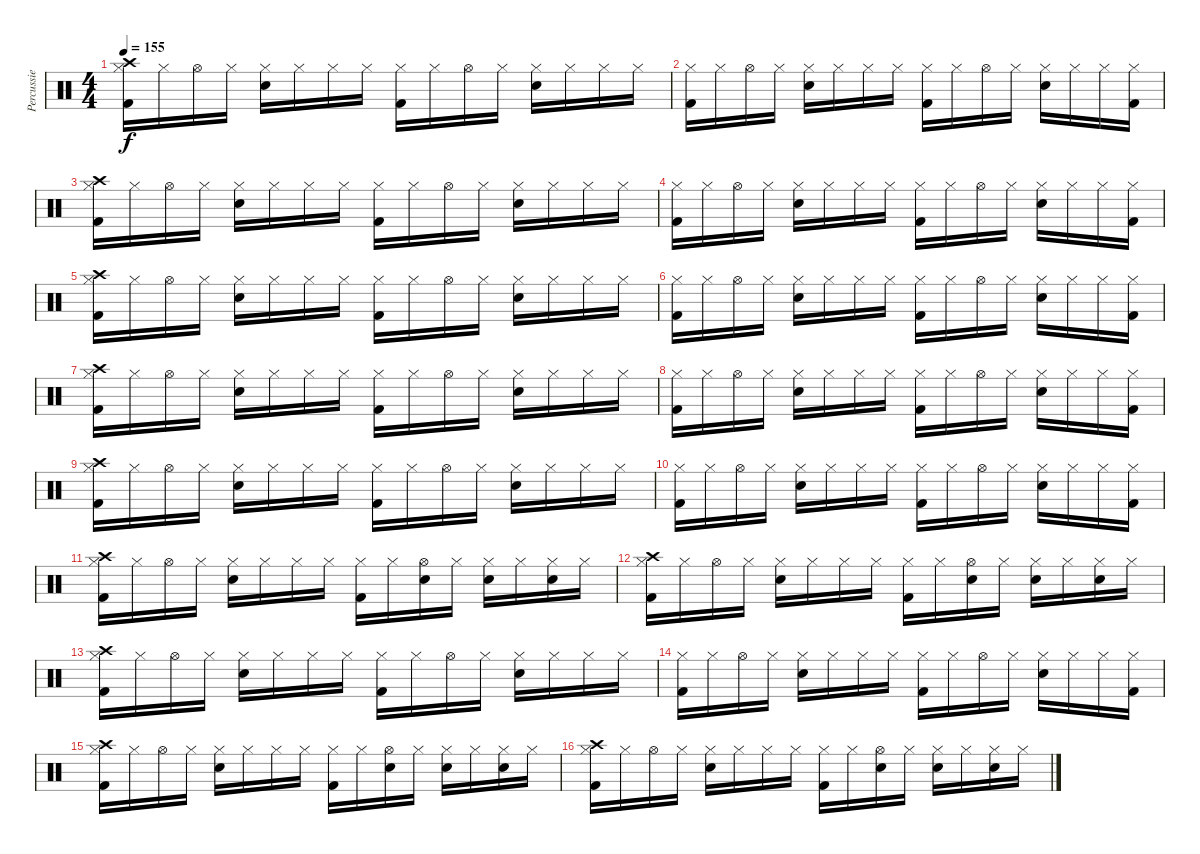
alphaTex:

\track ("Percussie" "Percussie") {instrument percussion}
\staff {score}
\articulation defaults
\ts (4 4)
\tempo 155
\clef neutral
\ks c
("Kick (hit) 2" "Hi-Hat (closed)" "Crash high (hit)").16{dy f} "Hi-Hat (closed)".16 "Hi-Hat (open)".16 "Hi-Hat (closed)".16 ("Electric Snare (hit)" "Hi-Hat (closed)").16 "Hi-Hat (closed)".16 "Hi-Hat (closed)".16 "Hi-Hat (closed)".16 ("Kick (hit) 2" "Hi-Hat (closed)").16 "Hi-Hat (closed)".16 "Hi-Hat (open)".16 "Hi-Hat (closed)".16 ("Electric Snare (hit)" "Hi-Hat (closed)").16 "Hi-Hat (closed)".16 "Hi-Hat (closed)".16 "Hi-Hat (closed)".16 |
("Kick (hit) 2" "Hi-Hat (closed)").16 "Hi-Hat (closed)".16 "Hi-Hat (open)".16 "Hi-Hat (closed)".16 ("Electric Snare (hit)" "Hi-Hat (closed)").16 "Hi-Hat (closed)".16 "Hi-Hat (closed)".16 "Hi-Hat (closed)".16 ("Kick (hit) 2" "Hi-Hat (closed)").16 "Hi-Hat (closed)".16 "Hi-Hat (open)".16 "Hi-Hat (closed)".16 ("Electric Snare (hit)" "Hi-Hat (closed)").16 "Hi-Hat (closed)".16 "Hi-Hat (closed)".16 ("Kick (hit) 2" "Hi-Hat (closed)").16 |
("Kick (hit) 2" "Hi-Hat (closed)" "Crash high (hit)").16 "Hi-Hat (closed)".16 "Hi-Hat (open)".16 "Hi-Hat (closed)".16 ("Electric Snare (hit)" "Hi-Hat (closed)").16 "Hi-Hat (closed)".16 "Hi-Hat (closed)".16 "Hi-Hat (closed)".16 ("Kick (hit) 2" "Hi-Hat (closed)").16 "Hi-Hat (closed)".16 "Hi-Hat (open)".16 "Hi-Hat (closed)".16 ("Electric Snare (hit)" "Hi-Hat (closed)").16 "Hi-Hat (closed)".16 "Hi-Hat (closed)".16 "Hi-Hat (closed)".16 |
("Kick (hit) 2" "Hi-Hat (closed)").16 "Hi-Hat (closed)".16 "Hi-Hat (open)".16 "Hi-Hat (closed)".16 ("Electric Snare (hit)" "Hi-Hat (closed)").16 "Hi-Hat (closed)".16 "Hi-Hat (closed)".16 "Hi-Hat (closed)".16 ("Kick (hit) 2" "Hi-Hat (closed)").16 "Hi-Hat (closed)".16 "Hi-Hat (open)".16 "Hi-Hat (closed)".16 ("Electric Snare (hit)" "Hi-Hat (closed)").16 "Hi-Hat (closed)".16 "Hi-Hat (closed)".16 ("Kick (hit) 2" "Hi-Hat (closed)").16 |
("Kick (hit) 2" "Hi-Hat (closed)" "Crash high (hit)").16 "Hi-Hat (closed)".16 "Hi-Hat (open)".16 "Hi-Hat (closed)".16 ("Electric Snare (hit)" "Hi-Hat (closed)").16 "Hi-Hat (closed)".16 "Hi-Hat (closed)".16 "Hi-Hat (closed)".16 ("Kick (hit) 2" "Hi-Hat (closed)").16 "Hi-Hat (closed)".16 "Hi-Hat (open)".16 "Hi-Hat (closed)".16 ("Electric Snare (hit)" "Hi-Hat (closed)").16 "Hi-Hat (closed)".16 "Hi-Hat (closed)".16 "Hi-Hat (closed)".16 |
("Kick (hit) 2" "Hi-Hat (closed)").16 "Hi-Hat (closed)".16 "Hi-Hat (open)".16 "Hi-Hat (closed)".16 ("Electric Snare (hit)" "Hi-Hat (closed)").16 "Hi-Hat (closed)".16 "Hi-Hat (closed)".16 "Hi-Hat (closed)".16 ("Kick (hit) 2" "Hi-Hat (closed)").16 "Hi-Hat (closed)".16 "Hi-Hat (open)".16 "Hi-Hat (closed)".16 ("Electric Snare (hit)" "Hi-Hat (closed)").16 "Hi-Hat (closed)".16 "Hi-Hat (closed)".16 ("Kick (hit) 2" "Hi-Hat (closed)").16 |
("Kick (hit) 2" "Hi-Hat (closed)" "Crash high (hit)").16 "Hi-Hat (closed)".16 "Hi-Hat (open)".16 "Hi-Hat (closed)".16 ("Electric Snare (hit)" "Hi-Hat (closed)").16 "Hi-Hat (closed)".16 "Hi-Hat (closed)".16 "Hi-Hat (closed)".16 ("Kick (hit) 2" "Hi-Hat (closed)").16 "Hi-Hat (closed)".16 "Hi-Hat (open)".16 "Hi-Hat (closed)".16 ("Electric Snare (hit)" "Hi-Hat (closed)").16 "Hi-Hat (closed)".16 "Hi-Hat (closed)".16 "Hi-Hat (closed)".16 |
("Kick (hit) 2" "Hi-Hat (closed)").16 "Hi-Hat (closed)".16 "Hi-Hat (open)".16 "Hi-Hat (closed)".16 ("Electric Snare (hit)" "Hi-Hat (closed)").16 "Hi-Hat (closed)".16 "Hi-Hat (closed)".16 "Hi-Hat (closed)".16 ("Kick (hit) 2" "Hi-Hat (closed)").16 "Hi-Hat (closed)".16 "Hi-Hat (open)".16 "Hi-Hat (closed)".16 ("Electric Snare (hit)" "Hi-Hat (closed)").16 "Hi-Hat (closed)".16 "Hi-Hat (closed)".16 ("Kick (hit) 2" "Hi-Hat (closed)").16 |
("Kick (hit) 2" "Hi-Hat (closed)" "Crash high (hit)").16 "Hi-Hat (closed)".16 "Hi-Hat (open)".16 "Hi-Hat (closed)".16 ("Electric Snare (hit)" "Hi-Hat (closed)").16 "Hi-Hat (closed)".16 "Hi-Hat (closed)".16 "Hi-Hat (closed)".16 ("Kick (hit) 2" "Hi-Hat (closed)").16 "Hi-Hat (closed)".16 "Hi-Hat (open)".16 "Hi-Hat (closed)".16 ("Electric Snare (hit)" "Hi-Hat (closed)").16 "Hi-Hat (closed)".16 "Hi-Hat (closed)".16 "Hi-Hat (closed)".16 |
("Kick (hit) 2" "Hi-Hat (closed)").16 "Hi-Hat (closed)".16 "Hi-Hat (open)".16 "Hi-Hat (closed)".16 ("Electric Snare (hit)" "Hi-Hat (closed)").16 "Hi-Hat (closed)".16 "Hi-Hat (closed)".16 "Hi-Hat (closed)".16 ("Kick (hit) 2" "Hi-Hat (closed)").16 "Hi-Hat (closed)".16 "Hi-Hat (open)".16 "Hi-Hat (closed)".16 ("Electric Snare (hit)" "Hi-Hat (closed)").16 "Hi-Hat (closed)".16 "Hi-Hat (closed)".16 ("Kick (hit) 2" "Hi-Hat (closed)").16 |
("Kick (hit) 2" "Hi-Hat (closed)" "Crash high (hit)").16 "Hi-Hat (closed)".16 "Hi-Hat (open)".16 "Hi-Hat (closed)".16 ("Electric Snare (hit)" "Hi-Hat (closed)").16 "Hi-Hat (closed)".16 "Hi-Hat (closed)".16 "Hi-Hat (closed)".16 ("Kick (hit) 2" "Hi-Hat (closed)").16 "Hi-Hat (closed)".16 ("Electric Snare (hit)" "Hi-Hat (open)").16 "Hi-Hat (closed)".16 ("Electric Snare (hit)" "Hi-Hat (closed)").16 "Hi-Hat (closed)".16 ("Electric Snare (hit)" "Hi-Hat (closed)").16 "Hi-Hat (closed)".16 |
("Kick (hit) 2" "Hi-Hat (closed)" "Crash high (hit)").16 "Hi-Hat (closed)".16 "Hi-Hat (open)".16 "Hi-Hat (closed)".16 ("Electric Snare (hit)" "Hi-Hat (closed)").16 "Hi-Hat (closed)".16 "Hi-Hat (closed)".16 "Hi-Hat (closed)".16 ("Kick (hit) 2" "Hi-Hat (closed)").16 "Hi-Hat (closed)".16 ("Electric Snare (hit)" "Hi-Hat (open)").16 "Hi-Hat (closed)".16 ("Electric Snare (hit)" "Hi-Hat (closed)").16 "Hi-Hat (closed)".16 ("Electric Snare (hit)" "Hi-Hat (closed)").16 "Hi-Hat (closed)".16 |
("Kick (hit) 2" "Hi-Hat (closed)" "Crash high (hit)").16 "Hi-Hat (closed)".16 "Hi-Hat (open)".16 "Hi-Hat (closed)".16 ("Electric Snare (hit)" "Hi-Hat (closed)").16 "Hi-Hat (closed)".16 "Hi-Hat (closed)".16 "Hi-Hat (closed)".16 ("Kick (hit) 2" "Hi-Hat (closed)").16 "Hi-Hat (closed)".16 "Hi-Hat (open)".16 "Hi-Hat (closed)".16 ("Electric Snare (hit)" "Hi-Hat (closed)").16 "Hi-Hat (closed)".16 "Hi-Hat (closed)".16 "Hi-Hat (closed)".16 |
("Kick (hit) 2" "Hi-Hat (closed)").16 "Hi-Hat (closed)".16 "Hi-Hat (open)".16 "Hi-Hat (closed)".16 ("Electric Snare (hit)" "Hi-Hat (closed)").16 "Hi-Hat (closed)".16 "Hi-Hat (closed)".16 "Hi-Hat (closed)".16 ("Kick (hit) 2" "Hi-Hat (closed)").16 "Hi-Hat (closed)".16 "Hi-Hat (open)".16 "Hi-Hat (closed)".16 ("Electric Snare (hit)" "Hi-Hat (closed)").16 "Hi-Hat (closed)".16 "Hi-Hat (closed)".16 ("Kick (hit) 2" "Hi-Hat (closed)").16 |
("Kick (hit) 2" "Hi-Hat (closed)" "Crash high (hit)").16 "Hi-Hat (closed)".16 "Hi-Hat (open)".16 "Hi-Hat (closed)".16 ("Electric Snare (hit)" "Hi-Hat (closed)").16 "Hi-Hat (closed)".16 "Hi-Hat (closed)".16 "Hi-Hat (closed)".16 ("Kick (hit) 2" "Hi-Hat (closed)").16 "Hi-Hat (closed)".16 ("Electric Snare (hit)" "Hi-Hat (open)").16 "Hi-Hat (closed)".16 ("Electric Snare (hit)" "Hi-Hat (closed)").16 "Hi-Hat (closed)".16 ("Electric Snare (hit)" "Hi-Hat (closed)").16 "Hi-Hat (closed)".16 |
("Kick (hit) 2" "Hi-Hat (closed)" "Crash high (hit)").16 "Hi-Hat (closed)".16 "Hi-Hat (open)".16 "Hi-Hat (closed)".16 ("Electric Snare (hit)" "Hi-Hat (closed)").16 "Hi-Hat (closed)".16 "Hi-Hat (closed)".16 "Hi-Hat (closed)".16 ("Kick (hit) 2" "Hi-Hat (closed)").16 "Hi-Hat (closed)".16 ("Electric Snare (hit)" "Hi-Hat (open)").16 "Hi-Hat (closed)".16 ("Electric Snare (hit)" "Hi-Hat (closed)").16 "Hi-Hat (closed)".16 ("Electric Snare (hit)" "Hi-Hat (closed)").16 "Hi-Hat (closed)".16
